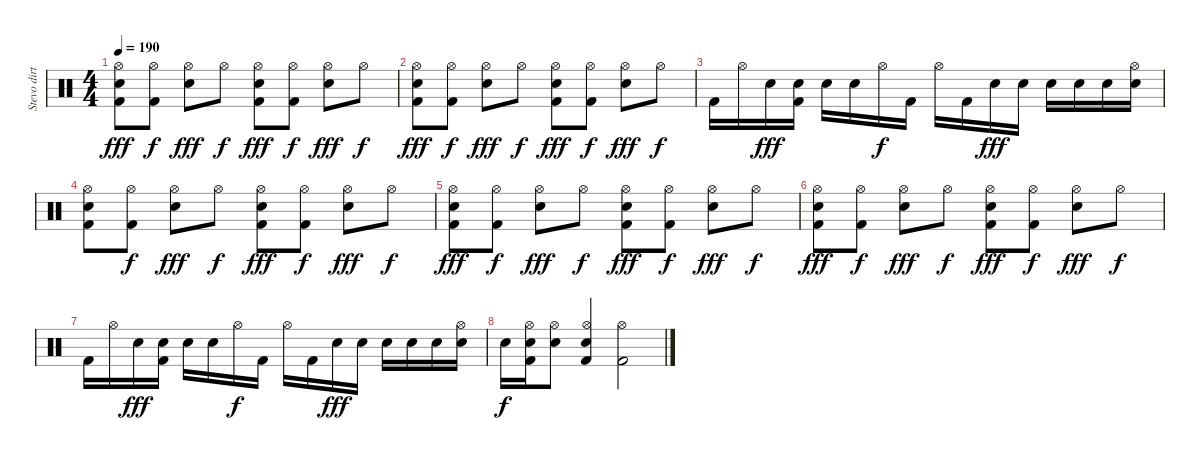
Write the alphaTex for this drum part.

\track ("Stevo dirty poo (drummer)" "Stevo dirt") {instrument percussion}
\staff {score}
\articulation defaults
\ts (4 4)
\tempo 190
\clef neutral
\ks c
("Snare (hit) 2" "Hi-Hat (open)" "Kick (hit) 2").8{dy fff} ("Hi-Hat (open)" "Kick (hit) 2").8{dy f} ("Snare (hit) 2" "Hi-Hat (open)").8{dy fff} "Hi-Hat (open)".8{dy f} ("Snare (hit) 2" "Hi-Hat (open)" "Kick (hit) 2").8{dy fff} ("Hi-Hat (open)" "Kick (hit) 2").8{dy f} ("Snare (hit) 2" "Hi-Hat (open)").8{dy fff} "Hi-Hat (open)".8{dy f} |
("Snare (hit) 2" "Hi-Hat (open)" "Kick (hit) 2").8{dy fff} ("Hi-Hat (open)" "Kick (hit) 2").8{dy f} ("Snare (hit) 2" "Hi-Hat (open)").8{dy fff} "Hi-Hat (open)".8{dy f} ("Snare (hit) 2" "Hi-Hat (open)" "Kick (hit) 2").8{dy fff} ("Hi-Hat (open)" "Kick (hit) 2").8{dy f} ("Snare (hit) 2" "Hi-Hat (open)").8{dy fff} "Hi-Hat (open)".8{dy f} |
"Kick (hit) 2".16 "Hi-Hat (open)".16 "Snare (hit) 2".16{dy fff} ("Snare (hit) 2" "Kick (hit) 2").16 "Snare (hit) 2".16 "Snare (hit) 2".16 "Hi-Hat (open)".16{dy f} "Kick (hit) 2".16 "Hi-Hat (open)".16 "Kick (hit) 2".16 "Snare (hit) 2".16{dy fff} "Snare (hit) 2".16 "Snare (hit) 2".16 "Snare (hit) 2".16 "Snare (hit) 2".16 ("Snare (hit) 2" "Hi-Hat (open)").16 |
("Snare (hit) 2" "Hi-Hat (open)" "Kick (hit) 2").8 ("Hi-Hat (open)" "Kick (hit) 2").8{dy f} ("Snare (hit) 2" "Hi-Hat (open)").8{dy fff} "Hi-Hat (open)".8{dy f} ("Snare (hit) 2" "Hi-Hat (open)" "Kick (hit) 2").8{dy fff} ("Hi-Hat (open)" "Kick (hit) 2").8{dy f} ("Snare (hit) 2" "Hi-Hat (open)").8{dy fff} "Hi-Hat (open)".8{dy f} |
("Snare (hit) 2" "Hi-Hat (open)" "Kick (hit) 2").8{dy fff} ("Hi-Hat (open)" "Kick (hit) 2").8{dy f} ("Snare (hit) 2" "Hi-Hat (open)").8{dy fff} "Hi-Hat (open)".8{dy f} ("Snare (hit) 2" "Hi-Hat (open)" "Kick (hit) 2").8{dy fff} ("Hi-Hat (open)" "Kick (hit) 2").8{dy f} ("Snare (hit) 2" "Hi-Hat (open)").8{dy fff} "Hi-Hat (open)".8{dy f} |
("Snare (hit) 2" "Hi-Hat (open)" "Kick (hit) 2").8{dy fff} ("Hi-Hat (open)" "Kick (hit) 2").8{dy f} ("Snare (hit) 2" "Hi-Hat (open)").8{dy fff} "Hi-Hat (open)".8{dy f} ("Snare (hit) 2" "Hi-Hat (open)" "Kick (hit) 2").8{dy fff} ("Hi-Hat (open)" "Kick (hit) 2").8{dy f} ("Snare (hit) 2" "Hi-Hat (open)").8{dy fff} "Hi-Hat (open)".8{dy f} |
"Kick (hit) 2".16 "Hi-Hat (open)".16 "Snare (hit) 2".16{dy fff} ("Snare (hit) 2" "Kick (hit) 2").16 "Snare (hit) 2".16 "Snare (hit) 2".16 "Hi-Hat (open)".16{dy f} "Kick (hit) 2".16 "Hi-Hat (open)".16 "Kick (hit) 2".16 "Snare (hit) 2".16{dy fff} "Snare (hit) 2".16 "Snare (hit) 2".16 "Snare (hit) 2".16 "Snare (hit) 2".16 ("Snare (hit) 2" "Hi-Hat (open)").16 |
"Snare (hit) 2".16{dy f} ("Snare (hit) 2" "Hi-Hat (open)" "Kick (hit) 2").16 ("Snare (hit) 2" "Hi-Hat (open)").8 ("Snare (hit) 2" "Hi-Hat (open)" "Kick (hit) 2").4 ("Hi-Hat (open)" "Kick (hit) 2").2
